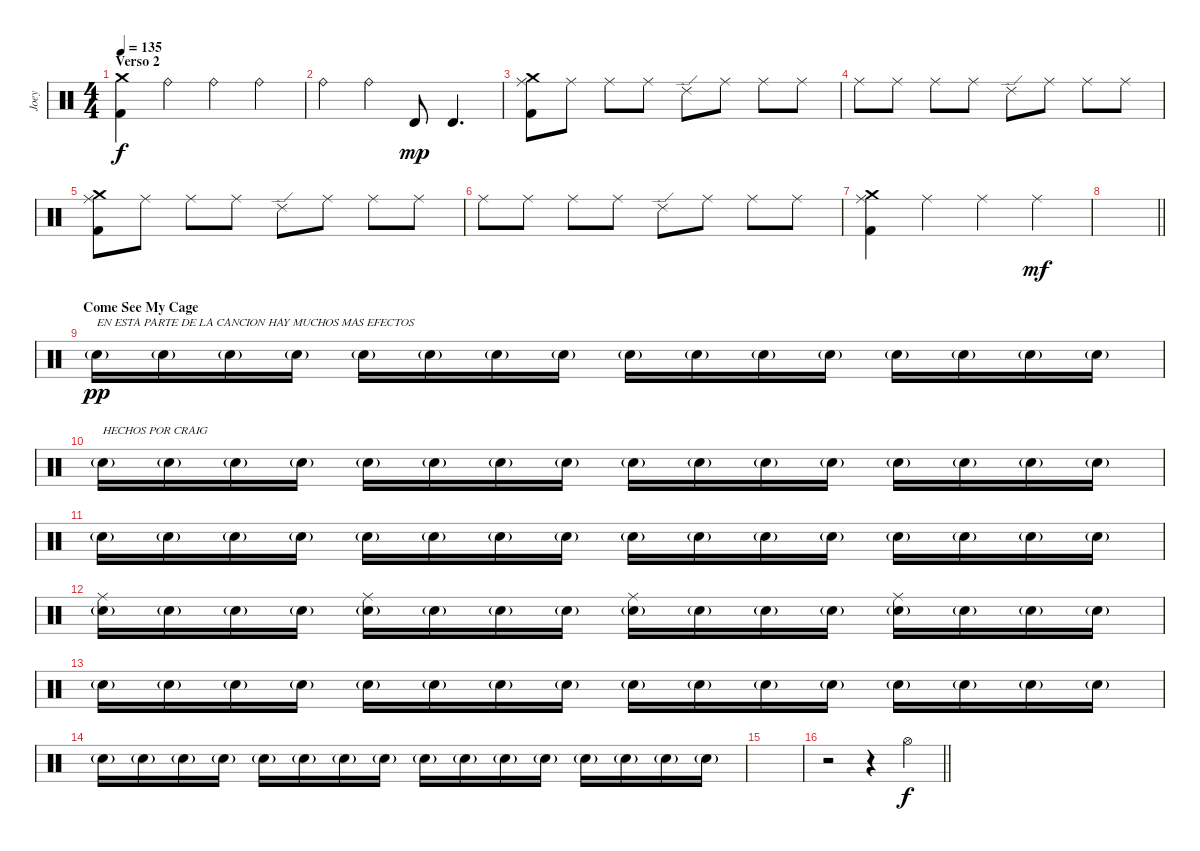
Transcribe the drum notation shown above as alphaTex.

\track ("Joey" "Joey") {instrument percussion}
\staff {score}
\articulation defaults
\ts (4 4)
\section ("" "Verso 2")
\tempo 135
\clef neutral
\ks c
("Crash medium (hit)" "Kick (hit) 2").4{dy f} "Ride (bell)".4 "Ride (bell)".4 "Ride (bell)".4 |
"Ride (bell)".4 "Ride (bell)".4 "Timbale high (hit)".8{dy mp} "Timbale high (hit)".4{d} |
("Crash medium (hit)" "Ride (middle)" "Kick (hit) 2").8 "Ride (middle)".8 "Ride (middle)".8 "Ride (middle)".8 "Ride (edge) 2".8 "Ride (middle)".8 "Ride (middle)".8 "Ride (middle)".8 |
"Ride (middle)".8 "Ride (middle)".8 "Ride (middle)".8 "Ride (middle)".8 "Ride (edge) 2".8 "Ride (middle)".8 "Ride (middle)".8 "Ride (middle)".8 |
("Crash medium (hit)" "Ride (middle)" "Kick (hit) 2").8 "Ride (middle)".8 "Ride (middle)".8 "Ride (middle)".8 "Ride (edge) 2".8 "Ride (middle)".8 "Ride (middle)".8 "Ride (middle)".8 |
"Ride (middle)".8 "Ride (middle)".8 "Ride (middle)".8 "Ride (middle)".8 "Ride (edge) 2".8 "Ride (middle)".8 "Ride (middle)".8 "Ride (middle)".8 |
("Crash medium (hit)" "Ride (middle)" "Kick (hit) 2").4 "Ride (middle)".4 "Ride (middle)".4 "Ride (middle)".4{dy mf} |
\barLineRight lightlight
|
\section ("" "Come See My Cage")
"Electric Snare (hit)"{g}.16{txt "EN ESTA PARTE DE LA CANCION HAY MUCHOS MAS EFECTOS" dy pp} "Electric Snare (hit)"{g}.16 "Electric Snare (hit)"{g}.16 "Electric Snare (hit)"{g}.16 "Electric Snare (hit)"{g}.16 "Electric Snare (hit)"{g}.16 "Electric Snare (hit)"{g}.16 "Electric Snare (hit)"{g}.16 "Electric Snare (hit)"{g}.16 "Electric Snare (hit)"{g}.16 "Electric Snare (hit)"{g}.16 "Electric Snare (hit)"{g}.16 "Electric Snare (hit)"{g}.16 "Electric Snare (hit)"{g}.16 "Electric Snare (hit)"{g}.16 "Electric Snare (hit)"{g}.16 |
"Electric Snare (hit)"{g}.16{txt "HECHOS POR CRAIG"} "Electric Snare (hit)"{g}.16 "Electric Snare (hit)"{g}.16 "Electric Snare (hit)"{g}.16 "Electric Snare (hit)"{g}.16 "Electric Snare (hit)"{g}.16 "Electric Snare (hit)"{g}.16 "Electric Snare (hit)"{g}.16 "Electric Snare (hit)"{g}.16 "Electric Snare (hit)"{g}.16 "Electric Snare (hit)"{g}.16 "Electric Snare (hit)"{g}.16 "Electric Snare (hit)"{g}.16 "Electric Snare (hit)"{g}.16 "Electric Snare (hit)"{g}.16 "Electric Snare (hit)"{g}.16 |
"Electric Snare (hit)"{g}.16 "Electric Snare (hit)"{g}.16 "Electric Snare (hit)"{g}.16 "Electric Snare (hit)"{g}.16 "Electric Snare (hit)"{g}.16 "Electric Snare (hit)"{g}.16 "Electric Snare (hit)"{g}.16 "Electric Snare (hit)"{g}.16 "Electric Snare (hit)"{g}.16 "Electric Snare (hit)"{g}.16 "Electric Snare (hit)"{g}.16 "Electric Snare (hit)"{g}.16 "Electric Snare (hit)"{g}.16 "Electric Snare (hit)"{g}.16 "Electric Snare (hit)"{g}.16 "Electric Snare (hit)"{g}.16 |
("Ride (middle)" "Electric Snare (hit)"{g}).16 "Electric Snare (hit)"{g}.16 "Electric Snare (hit)"{g}.16 "Electric Snare (hit)"{g}.16 ("Ride (middle)" "Electric Snare (hit)"{g}).16 "Electric Snare (hit)"{g}.16 "Electric Snare (hit)"{g}.16 "Electric Snare (hit)"{g}.16 ("Ride (middle)" "Electric Snare (hit)"{g}).16 "Electric Snare (hit)"{g}.16 "Electric Snare (hit)"{g}.16 "Electric Snare (hit)"{g}.16 ("Ride (middle)" "Electric Snare (hit)"{g}).16 "Electric Snare (hit)"{g}.16 "Electric Snare (hit)"{g}.16 "Electric Snare (hit)"{g}.16 |
"Electric Snare (hit)"{g}.16 "Electric Snare (hit)"{g}.16 "Electric Snare (hit)"{g}.16 "Electric Snare (hit)"{g}.16 "Electric Snare (hit)"{g}.16 "Electric Snare (hit)"{g}.16 "Electric Snare (hit)"{g}.16 "Electric Snare (hit)"{g}.16 "Electric Snare (hit)"{g}.16 "Electric Snare (hit)"{g}.16 "Electric Snare (hit)"{g}.16 "Electric Snare (hit)"{g}.16 "Electric Snare (hit)"{g}.16 "Electric Snare (hit)"{g}.16 "Electric Snare (hit)"{g}.16 "Electric Snare (hit)"{g}.16 |
"Electric Snare (hit)"{g}.16 "Electric Snare (hit)"{g}.16 "Electric Snare (hit)"{g}.16 "Electric Snare (hit)"{g}.16 "Electric Snare (hit)"{g}.16 "Electric Snare (hit)"{g}.16 "Electric Snare (hit)"{g}.16 "Electric Snare (hit)"{g}.16 "Electric Snare (hit)"{g}.16 "Electric Snare (hit)"{g}.16 "Electric Snare (hit)"{g}.16 "Electric Snare (hit)"{g}.16 "Electric Snare (hit)"{g}.16 "Electric Snare (hit)"{g}.16 "Electric Snare (hit)"{g}.16 "Electric Snare (hit)"{g}.16 |
|
\barLineRight lightlight
r.2 r.4 "Hi-Hat (open)".4{dy f}
